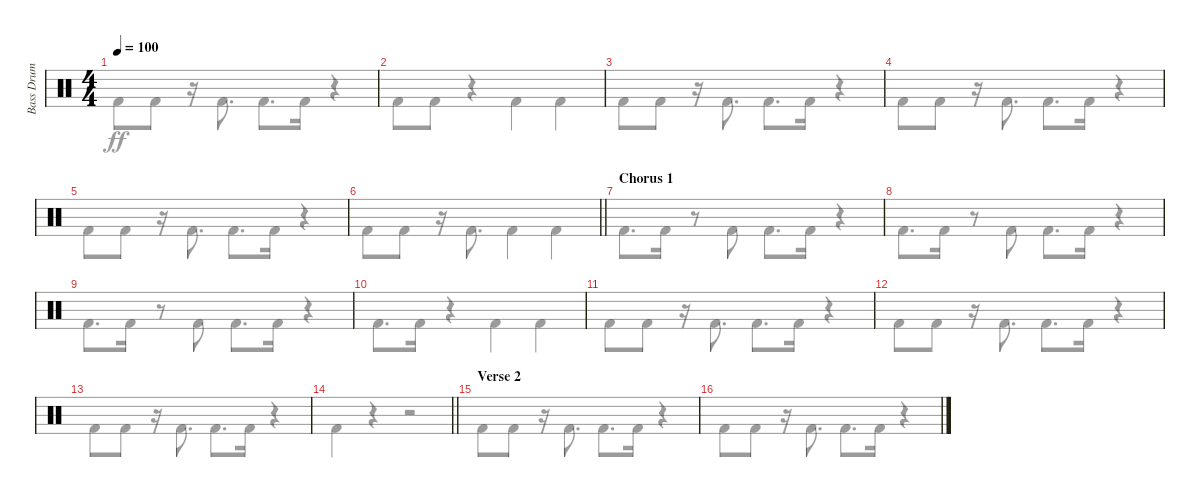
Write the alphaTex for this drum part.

\track ("Bass Drum" "Bass Drum") {instrument percussion}
\staff {score}
\articulation defaults
\voice
\ts (4 4)
\tempo 100
\clef neutral
\ks c
|
|
|
|
|
\barLineRight lightlight
|
\section ("" "Chorus 1")
|
|
|
|
|
|
|
\barLineRight lightlight
|
\section ("" "Verse 2")
|
\voice
\clef neutral
\ks c "Kick (hit) 2".8{dy ff} "Kick (hit) 2".8
r.16 "Kick (hit) 2".8{d} "Kick (hit) 2".8{d} "Kick (hit) 2".16 r.4 |
"Kick (hit) 2".8 "Kick (hit) 2".8 r.4 "Kick (hit) 2".4 "Kick (hit) 2".4 |
"Kick (hit) 2".8 "Kick (hit) 2".8 r.16 "Kick (hit) 2".8{d} "Kick (hit) 2".8{d} "Kick (hit) 2".16 r.4 |
"Kick (hit) 2".8 "Kick (hit) 2".8 r.16 "Kick (hit) 2".8{d} "Kick (hit) 2".8{d} "Kick (hit) 2".16 r.4 |
"Kick (hit) 2".8 "Kick (hit) 2".8 r.16 "Kick (hit) 2".8{d} "Kick (hit) 2".8{d} "Kick (hit) 2".16 r.4 |
\barLineRight lightlight "Kick (hit) 2".8 "Kick (hit) 2".8
r.16 "Kick (hit) 2".8{d} "Kick (hit) 2".4 "Kick (hit) 2".4 |
"Kick (hit) 2".8{d} "Kick (hit) 2".16 r.8 "Kick (hit) 2".8 "Kick (hit) 2".8{d} "Kick (hit) 2".16 r.4 |
"Kick (hit) 2".8{d} "Kick (hit) 2".16 r.8 "Kick (hit) 2".8 "Kick (hit) 2".8{d} "Kick (hit) 2".16 r.4 |
"Kick (hit) 2".8{d} "Kick (hit) 2".16 r.8 "Kick (hit) 2".8 "Kick (hit) 2".8{d} "Kick (hit) 2".16 r.4 |
"Kick (hit) 2".8{d} "Kick (hit) 2".16 r.4 "Kick (hit) 2".4 "Kick (hit) 2".4 |
"Kick (hit) 2".8 "Kick (hit) 2".8 r.16 "Kick (hit) 2".8{d} "Kick (hit) 2".8{d} "Kick (hit) 2".16 r.4 |
"Kick (hit) 2".8 "Kick (hit) 2".8 r.16 "Kick (hit) 2".8{d} "Kick (hit) 2".8{d} "Kick (hit) 2".16 r.4 |
"Kick (hit) 2".8 "Kick (hit) 2".8 r.16 "Kick (hit) 2".8{d} "Kick (hit) 2".8{d} "Kick (hit) 2".16 r.4 |
\barLineRight lightlight "Kick (hit) 2".4
r.4 r.2 |
"Kick (hit) 2".8 "Kick (hit) 2".8 r.16 "Kick (hit) 2".8{d} "Kick (hit) 2".8{d} "Kick (hit) 2".16 r.4 |
"Kick (hit) 2".8 "Kick (hit) 2".8 r.16 "Kick (hit) 2".8{d} "Kick (hit) 2".8{d} "Kick (hit) 2".16 r.4
